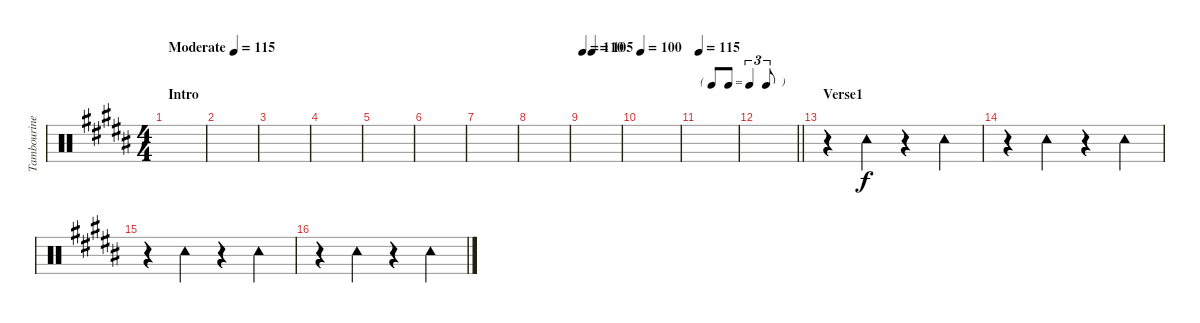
\track ("Tambourine" "Tambourine") {instrument percussion}
\staff {score}
\articulation defaults
\ts (4 4)
\section ("" "Intro")
\tempo (115 "Moderate")
\clef neutral
\ks b
|
|
|
|
|
|
|
|
\tempo 110
\tempo (105 0.25)
|
\tempo 100
|
\tf triplet8th
\tempo 115
|
\barLineRight lightlight
|
\section ("" "Verse1")
r.4 "Tambourine (hit)".4 r.4 "Tambourine (hit)".4 |
r.4 "Tambourine (hit)".4 r.4 "Tambourine (hit)".4 |
r.4 "Tambourine (hit)".4 r.4 "Tambourine (hit)".4 |
r.4 "Tambourine (hit)".4 r.4 "Tambourine (hit)".4
